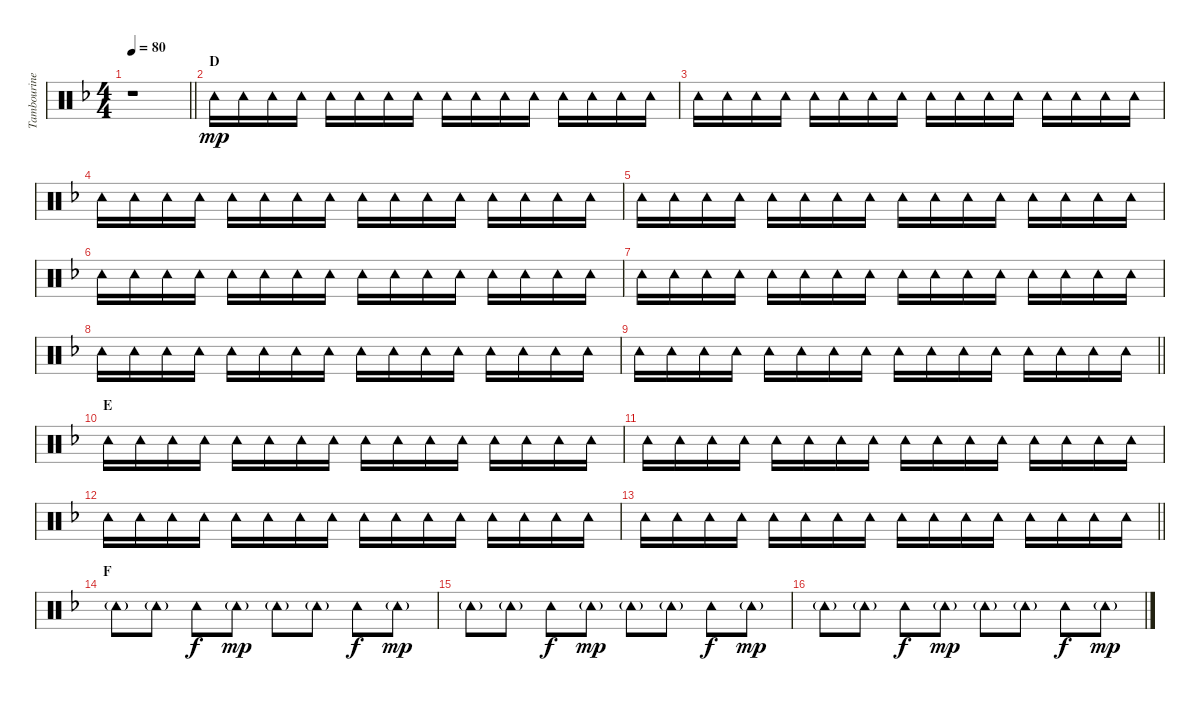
\track ("Tambourine" "Tambourine") {instrument percussion}
\staff {score}
\articulation defaults
\ts (4 4)
\tempo 80
\clef neutral
\barLineRight lightlight
\ks f
r.1{dy mp} |
\section ("" "D")
"Tambourine (hit)".16 "Tambourine (hit)".16 "Tambourine (hit)".16 "Tambourine (hit)".16 "Tambourine (hit)".16 "Tambourine (hit)".16 "Tambourine (hit)".16 "Tambourine (hit)".16 "Tambourine (hit)".16 "Tambourine (hit)".16 "Tambourine (hit)".16 "Tambourine (hit)".16 "Tambourine (hit)".16 "Tambourine (hit)".16 "Tambourine (hit)".16 "Tambourine (hit)".16 |
"Tambourine (hit)".16 "Tambourine (hit)".16 "Tambourine (hit)".16 "Tambourine (hit)".16 "Tambourine (hit)".16 "Tambourine (hit)".16 "Tambourine (hit)".16 "Tambourine (hit)".16 "Tambourine (hit)".16 "Tambourine (hit)".16 "Tambourine (hit)".16 "Tambourine (hit)".16 "Tambourine (hit)".16 "Tambourine (hit)".16 "Tambourine (hit)".16 "Tambourine (hit)".16 |
"Tambourine (hit)".16 "Tambourine (hit)".16 "Tambourine (hit)".16 "Tambourine (hit)".16 "Tambourine (hit)".16 "Tambourine (hit)".16 "Tambourine (hit)".16 "Tambourine (hit)".16 "Tambourine (hit)".16 "Tambourine (hit)".16 "Tambourine (hit)".16 "Tambourine (hit)".16 "Tambourine (hit)".16 "Tambourine (hit)".16 "Tambourine (hit)".16 "Tambourine (hit)".16 |
"Tambourine (hit)".16 "Tambourine (hit)".16 "Tambourine (hit)".16 "Tambourine (hit)".16 "Tambourine (hit)".16 "Tambourine (hit)".16 "Tambourine (hit)".16 "Tambourine (hit)".16 "Tambourine (hit)".16 "Tambourine (hit)".16 "Tambourine (hit)".16 "Tambourine (hit)".16 "Tambourine (hit)".16 "Tambourine (hit)".16 "Tambourine (hit)".16 "Tambourine (hit)".16 |
"Tambourine (hit)".16 "Tambourine (hit)".16 "Tambourine (hit)".16 "Tambourine (hit)".16 "Tambourine (hit)".16 "Tambourine (hit)".16 "Tambourine (hit)".16 "Tambourine (hit)".16 "Tambourine (hit)".16 "Tambourine (hit)".16 "Tambourine (hit)".16 "Tambourine (hit)".16 "Tambourine (hit)".16 "Tambourine (hit)".16 "Tambourine (hit)".16 "Tambourine (hit)".16 |
"Tambourine (hit)".16 "Tambourine (hit)".16 "Tambourine (hit)".16 "Tambourine (hit)".16 "Tambourine (hit)".16 "Tambourine (hit)".16 "Tambourine (hit)".16 "Tambourine (hit)".16 "Tambourine (hit)".16 "Tambourine (hit)".16 "Tambourine (hit)".16 "Tambourine (hit)".16 "Tambourine (hit)".16 "Tambourine (hit)".16 "Tambourine (hit)".16 "Tambourine (hit)".16 |
"Tambourine (hit)".16 "Tambourine (hit)".16 "Tambourine (hit)".16 "Tambourine (hit)".16 "Tambourine (hit)".16 "Tambourine (hit)".16 "Tambourine (hit)".16 "Tambourine (hit)".16 "Tambourine (hit)".16 "Tambourine (hit)".16 "Tambourine (hit)".16 "Tambourine (hit)".16 "Tambourine (hit)".16 "Tambourine (hit)".16 "Tambourine (hit)".16 "Tambourine (hit)".16 |
\barLineRight lightlight "Tambourine (hit)".16 "Tambourine (hit)".16 "Tambourine (hit)".16 "Tambourine (hit)".16 "Tambourine (hit)".16 "Tambourine (hit)".16 "Tambourine (hit)".16 "Tambourine (hit)".16 "Tambourine (hit)".16 "Tambourine (hit)".16 "Tambourine (hit)".16 "Tambourine (hit)".16 "Tambourine (hit)".16 "Tambourine (hit)".16 "Tambourine (hit)".16 "Tambourine (hit)".16
|
\section ("" "E")
"Tambourine (hit)".16 "Tambourine (hit)".16 "Tambourine (hit)".16 "Tambourine (hit)".16 "Tambourine (hit)".16 "Tambourine (hit)".16 "Tambourine (hit)".16 "Tambourine (hit)".16 "Tambourine (hit)".16 "Tambourine (hit)".16 "Tambourine (hit)".16 "Tambourine (hit)".16 "Tambourine (hit)".16 "Tambourine (hit)".16 "Tambourine (hit)".16 "Tambourine (hit)".16 |
"Tambourine (hit)".16 "Tambourine (hit)".16 "Tambourine (hit)".16 "Tambourine (hit)".16 "Tambourine (hit)".16 "Tambourine (hit)".16 "Tambourine (hit)".16 "Tambourine (hit)".16 "Tambourine (hit)".16 "Tambourine (hit)".16 "Tambourine (hit)".16 "Tambourine (hit)".16 "Tambourine (hit)".16 "Tambourine (hit)".16 "Tambourine (hit)".16 "Tambourine (hit)".16 |
"Tambourine (hit)".16 "Tambourine (hit)".16 "Tambourine (hit)".16 "Tambourine (hit)".16 "Tambourine (hit)".16 "Tambourine (hit)".16 "Tambourine (hit)".16 "Tambourine (hit)".16 "Tambourine (hit)".16 "Tambourine (hit)".16 "Tambourine (hit)".16 "Tambourine (hit)".16 "Tambourine (hit)".16 "Tambourine (hit)".16 "Tambourine (hit)".16 "Tambourine (hit)".16 |
\barLineRight lightlight "Tambourine (hit)".16 "Tambourine (hit)".16 "Tambourine (hit)".16 "Tambourine (hit)".16 "Tambourine (hit)".16 "Tambourine (hit)".16 "Tambourine (hit)".16 "Tambourine (hit)".16 "Tambourine (hit)".16 "Tambourine (hit)".16 "Tambourine (hit)".16 "Tambourine (hit)".16 "Tambourine (hit)".16 "Tambourine (hit)".16 "Tambourine (hit)".16 "Tambourine (hit)".16
|
\section ("" "F")
"Tambourine (hit)"{g}.8 "Tambourine (hit)"{g}.8 "Tambourine (hit)".8{dy f} "Tambourine (hit)"{g}.8{dy mp} "Tambourine (hit)"{g}.8 "Tambourine (hit)"{g}.8 "Tambourine (hit)".8{dy f} "Tambourine (hit)"{g}.8{dy mp} |
"Tambourine (hit)"{g}.8 "Tambourine (hit)"{g}.8 "Tambourine (hit)".8{dy f} "Tambourine (hit)"{g}.8{dy mp} "Tambourine (hit)"{g}.8 "Tambourine (hit)"{g}.8 "Tambourine (hit)".8{dy f} "Tambourine (hit)"{g}.8{dy mp} |
"Tambourine (hit)"{g}.8 "Tambourine (hit)"{g}.8 "Tambourine (hit)".8{dy f} "Tambourine (hit)"{g}.8{dy mp} "Tambourine (hit)"{g}.8 "Tambourine (hit)"{g}.8 "Tambourine (hit)".8{dy f} "Tambourine (hit)"{g}.8{dy mp}
